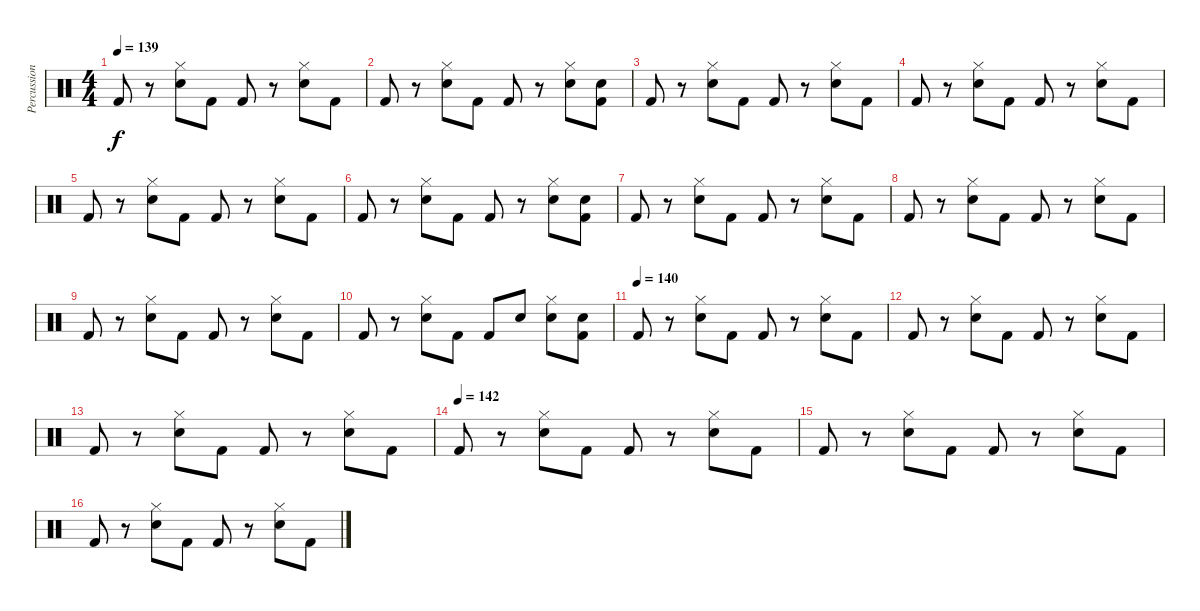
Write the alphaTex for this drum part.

\track ("Percussion" "Percussion") {instrument percussion}
\staff {score}
\articulation defaults
\ts (4 4)
\tempo 139
\clef neutral
\ks c "Kick (hit) 2".8{dy f}
r.8 ("Hi-Hat (closed)" "Snare (hit) 2").8 "Kick (hit) 2".8 "Kick (hit) 2".8 r.8 ("Hi-Hat (closed)" "Snare (hit) 2").8 "Kick (hit) 2".8 |
"Kick (hit) 2".8 r.8 ("Hi-Hat (closed)" "Snare (hit) 2").8 "Kick (hit) 2".8 "Kick (hit) 2".8 r.8 ("Hi-Hat (closed)" "Snare (hit) 2").8 ("Snare (hit) 2" "Kick (hit) 2").8 |
"Kick (hit) 2".8 r.8 ("Hi-Hat (closed)" "Snare (hit) 2").8 "Kick (hit) 2".8 "Kick (hit) 2".8 r.8 ("Hi-Hat (closed)" "Snare (hit) 2").8 "Kick (hit) 2".8 |
"Kick (hit) 2".8 r.8 ("Hi-Hat (closed)" "Snare (hit) 2").8 "Kick (hit) 2".8 "Kick (hit) 2".8 r.8 ("Hi-Hat (closed)" "Snare (hit) 2").8 "Kick (hit) 2".8 |
"Kick (hit) 2".8 r.8 ("Hi-Hat (closed)" "Snare (hit) 2").8 "Kick (hit) 2".8 "Kick (hit) 2".8 r.8 ("Hi-Hat (closed)" "Snare (hit) 2").8 "Kick (hit) 2".8 |
"Kick (hit) 2".8 r.8 ("Hi-Hat (closed)" "Snare (hit) 2").8 "Kick (hit) 2".8 "Kick (hit) 2".8 r.8 ("Hi-Hat (closed)" "Snare (hit) 2").8 ("Snare (hit) 2" "Kick (hit) 2").8 |
"Kick (hit) 2".8 r.8 ("Hi-Hat (closed)" "Snare (hit) 2").8 "Kick (hit) 2".8 "Kick (hit) 2".8 r.8 ("Hi-Hat (closed)" "Snare (hit) 2").8 "Kick (hit) 2".8 |
"Kick (hit) 2".8 r.8 ("Hi-Hat (closed)" "Snare (hit) 2").8 "Kick (hit) 2".8 "Kick (hit) 2".8 r.8 ("Hi-Hat (closed)" "Snare (hit) 2").8 "Kick (hit) 2".8 |
"Kick (hit) 2".8 r.8 ("Hi-Hat (closed)" "Snare (hit) 2").8 "Kick (hit) 2".8 "Kick (hit) 2".8 r.8 ("Hi-Hat (closed)" "Snare (hit) 2").8 "Kick (hit) 2".8 |
"Kick (hit) 2".8 r.8 ("Hi-Hat (closed)" "Snare (hit) 2").8 "Kick (hit) 2".8 "Kick (hit) 2".8 "Snare (hit) 2".8 ("Hi-Hat (closed)" "Snare (hit) 2").8 ("Snare (hit) 2" "Kick (hit) 2").8 |
\tempo (140)
"Kick (hit) 2".8 r.8 ("Hi-Hat (closed)" "Snare (hit) 2").8 "Kick (hit) 2".8 "Kick (hit) 2".8 r.8 ("Hi-Hat (closed)" "Snare (hit) 2").8 "Kick (hit) 2".8 |
"Kick (hit) 2".8 r.8 ("Hi-Hat (closed)" "Snare (hit) 2").8 "Kick (hit) 2".8 "Kick (hit) 2".8 r.8 ("Hi-Hat (closed)" "Snare (hit) 2").8 "Kick (hit) 2".8 |
"Kick (hit) 2".8 r.8 ("Hi-Hat (closed)" "Snare (hit) 2").8 "Kick (hit) 2".8 "Kick (hit) 2".8 r.8 ("Hi-Hat (closed)" "Snare (hit) 2").8 "Kick (hit) 2".8 |
\tempo (142)
"Kick (hit) 2".8 r.8 ("Hi-Hat (closed)" "Snare (hit) 2").8 "Kick (hit) 2".8 "Kick (hit) 2".8 r.8 ("Hi-Hat (closed)" "Snare (hit) 2").8 "Kick (hit) 2".8 |
"Kick (hit) 2".8 r.8 ("Hi-Hat (closed)" "Snare (hit) 2").8 "Kick (hit) 2".8 "Kick (hit) 2".8 r.8 ("Hi-Hat (closed)" "Snare (hit) 2").8 "Kick (hit) 2".8 |
"Kick (hit) 2".8 r.8 ("Hi-Hat (closed)" "Snare (hit) 2").8 "Kick (hit) 2".8 "Kick (hit) 2".8 r.8 ("Hi-Hat (closed)" "Snare (hit) 2").8 "Kick (hit) 2".8
